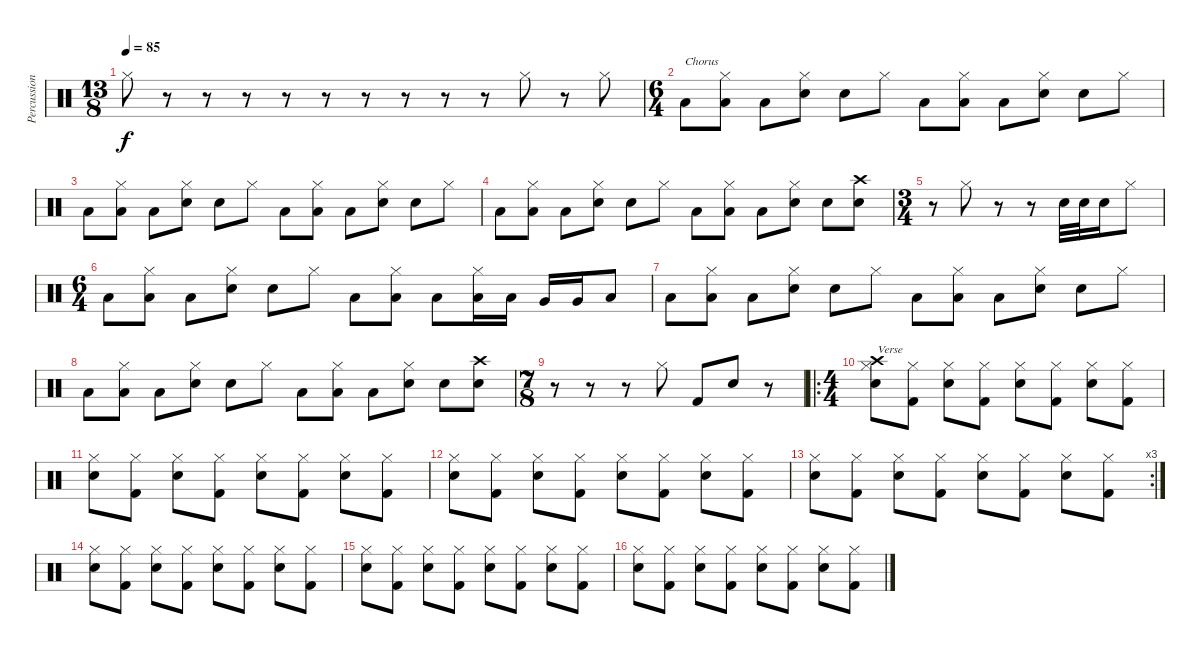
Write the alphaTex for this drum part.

\track ("Percussion" "Percussion") {instrument percussion}
\staff {score}
\articulation defaults
\ts (13 8)
\tempo 85
\clef neutral
\ks c "Hi-Hat (closed)".8{dy f}
r.8 r.8 r.8 r.8 r.8 r.8 r.8 r.8 r.8 "Hi-Hat (closed)".8 r.8 "Hi-Hat (closed)".8 |
\ts (6 4)
"Low Floor Tom (hit)".8{txt "Chorus"} ("Hi-Hat (closed)" "Low Tom (hit)").8 "Low Floor Tom (hit)".8 ("Hi-Hat (closed)" "Snare (hit) 2").8 "Snare (hit) 2".8 "Hi-Hat (closed)".8 "Low Floor Tom (hit)".8 ("Hi-Hat (closed)" "Low Tom (hit)").8 "Low Floor Tom (hit)".8 ("Hi-Hat (closed)" "Snare (hit) 2").8 "Snare (hit) 2".8 "Hi-Hat (closed)".8 |
"Low Floor Tom (hit)".8 ("Hi-Hat (closed)" "Low Tom (hit)").8 "Low Floor Tom (hit)".8 ("Hi-Hat (closed)" "Snare (hit) 2").8 "Snare (hit) 2".8 "Hi-Hat (closed)".8 "Low Floor Tom (hit)".8 ("Hi-Hat (closed)" "Low Tom (hit)").8 "Low Floor Tom (hit)".8 ("Hi-Hat (closed)" "Snare (hit) 2").8 "Snare (hit) 2".8 "Hi-Hat (closed)".8 |
"Low Floor Tom (hit)".8 ("Hi-Hat (closed)" "Low Tom (hit)").8 "Low Floor Tom (hit)".8 ("Hi-Hat (closed)" "Snare (hit) 2").8 "Snare (hit) 2".8 "Hi-Hat (closed)".8 "Low Floor Tom (hit)".8 ("Hi-Hat (closed)" "Low Tom (hit)").8 "Low Floor Tom (hit)".8 ("Hi-Hat (closed)" "Snare (hit) 2").8 "Snare (hit) 2".8 ("Crash high (hit)" "Snare (hit) 2").8 |
\ts (3 4)
r.8 "Hi-Hat (closed)".8 r.8 r.8 "Snare (hit) 2".32 "Snare (hit) 2".32 "Snare (hit) 2".16 "Hi-Hat (closed)".8 |
\ts (6 4)
"Low Floor Tom (hit)".8 ("Hi-Hat (closed)" "Low Tom (hit)").8 "Low Floor Tom (hit)".8 ("Hi-Hat (closed)" "Snare (hit) 2").8 "Snare (hit) 2".8 "Hi-Hat (closed)".8 "Low Floor Tom (hit)".8 ("Hi-Hat (closed)" "Low Tom (hit)").8 "Low Floor Tom (hit)".8 ("Hi-Hat (closed)" "Low Tom (hit)").16 "Low Tom (hit)".16 "Very Low Tom (hit)".16 "Very Low Tom (hit)".16 "Low Floor Tom (hit)".8 |
"Low Floor Tom (hit)".8 ("Hi-Hat (closed)" "Low Tom (hit)").8 "Low Floor Tom (hit)".8 ("Hi-Hat (closed)" "Snare (hit) 2").8 "Snare (hit) 2".8 "Hi-Hat (closed)".8 "Low Floor Tom (hit)".8 ("Hi-Hat (closed)" "Low Tom (hit)").8 "Low Floor Tom (hit)".8 ("Hi-Hat (closed)" "Snare (hit) 2").8 "Snare (hit) 2".8 "Hi-Hat (closed)".8 |
"Low Floor Tom (hit)".8 ("Hi-Hat (closed)" "Low Tom (hit)").8 "Low Floor Tom (hit)".8 ("Hi-Hat (closed)" "Snare (hit) 2").8 "Snare (hit) 2".8 "Hi-Hat (closed)".8 "Low Floor Tom (hit)".8 ("Hi-Hat (closed)" "Low Tom (hit)").8 "Low Floor Tom (hit)".8 ("Hi-Hat (closed)" "Snare (hit) 2").8 "Snare (hit) 2".8 ("Crash high (hit)" "Snare (hit) 2").8 |
\ts (7 8)
r.8 r.8 r.8 "Hi-Hat (closed)".8 "Kick (hit) 2".8 "Electric Snare (hit)".8 r.8 |
\ro
\ts (4 4)
("Crash high (hit)" "Hi-Hat (closed)" "Electric Snare (hit)").8{txt "Verse"} ("Hi-Hat (closed)" "Kick (hit) 2").8 ("Hi-Hat (closed)" "Electric Snare (hit)").8 ("Hi-Hat (closed)" "Kick (hit) 2").8 ("Hi-Hat (closed)" "Electric Snare (hit)").8 ("Hi-Hat (closed)" "Kick (hit) 2").8 ("Hi-Hat (closed)" "Electric Snare (hit)").8 ("Hi-Hat (closed)" "Kick (hit) 2").8 |
("Hi-Hat (closed)" "Electric Snare (hit)").8 ("Hi-Hat (closed)" "Kick (hit) 2").8 ("Hi-Hat (closed)" "Electric Snare (hit)").8 ("Hi-Hat (closed)" "Kick (hit) 2").8 ("Hi-Hat (closed)" "Electric Snare (hit)").8 ("Hi-Hat (closed)" "Kick (hit) 2").8 ("Hi-Hat (closed)" "Electric Snare (hit)").8 ("Hi-Hat (closed)" "Kick (hit) 2").8 |
("Hi-Hat (closed)" "Electric Snare (hit)").8 ("Hi-Hat (closed)" "Kick (hit) 2").8 ("Hi-Hat (closed)" "Electric Snare (hit)").8 ("Hi-Hat (closed)" "Kick (hit) 2").8 ("Hi-Hat (closed)" "Electric Snare (hit)").8 ("Hi-Hat (closed)" "Kick (hit) 2").8 ("Hi-Hat (closed)" "Electric Snare (hit)").8 ("Hi-Hat (closed)" "Kick (hit) 2").8 |
\rc 3
("Hi-Hat (closed)" "Electric Snare (hit)").8 ("Hi-Hat (closed)" "Kick (hit) 2").8 ("Hi-Hat (closed)" "Electric Snare (hit)").8 ("Hi-Hat (closed)" "Kick (hit) 2").8 ("Hi-Hat (closed)" "Electric Snare (hit)").8 ("Hi-Hat (closed)" "Kick (hit) 2").8 ("Hi-Hat (closed)" "Electric Snare (hit)").8 ("Hi-Hat (closed)" "Kick (hit) 2").8 |
("Hi-Hat (closed)" "Electric Snare (hit)").8 ("Hi-Hat (closed)" "Kick (hit) 2").8 ("Hi-Hat (closed)" "Electric Snare (hit)").8 ("Hi-Hat (closed)" "Kick (hit) 2").8 ("Hi-Hat (closed)" "Electric Snare (hit)").8 ("Hi-Hat (closed)" "Kick (hit) 2").8 ("Hi-Hat (closed)" "Electric Snare (hit)").8 ("Hi-Hat (closed)" "Kick (hit) 2").8 |
("Hi-Hat (closed)" "Electric Snare (hit)").8 ("Hi-Hat (closed)" "Kick (hit) 2").8 ("Hi-Hat (closed)" "Electric Snare (hit)").8 ("Hi-Hat (closed)" "Kick (hit) 2").8 ("Hi-Hat (closed)" "Electric Snare (hit)").8 ("Hi-Hat (closed)" "Kick (hit) 2").8 ("Hi-Hat (closed)" "Electric Snare (hit)").8 ("Hi-Hat (closed)" "Kick (hit) 2").8 |
("Hi-Hat (closed)" "Electric Snare (hit)").8 ("Hi-Hat (closed)" "Kick (hit) 2").8 ("Hi-Hat (closed)" "Electric Snare (hit)").8 ("Hi-Hat (closed)" "Kick (hit) 2").8 ("Hi-Hat (closed)" "Electric Snare (hit)").8 ("Hi-Hat (closed)" "Kick (hit) 2").8 ("Hi-Hat (closed)" "Electric Snare (hit)").8 ("Hi-Hat (closed)" "Kick (hit) 2").8
